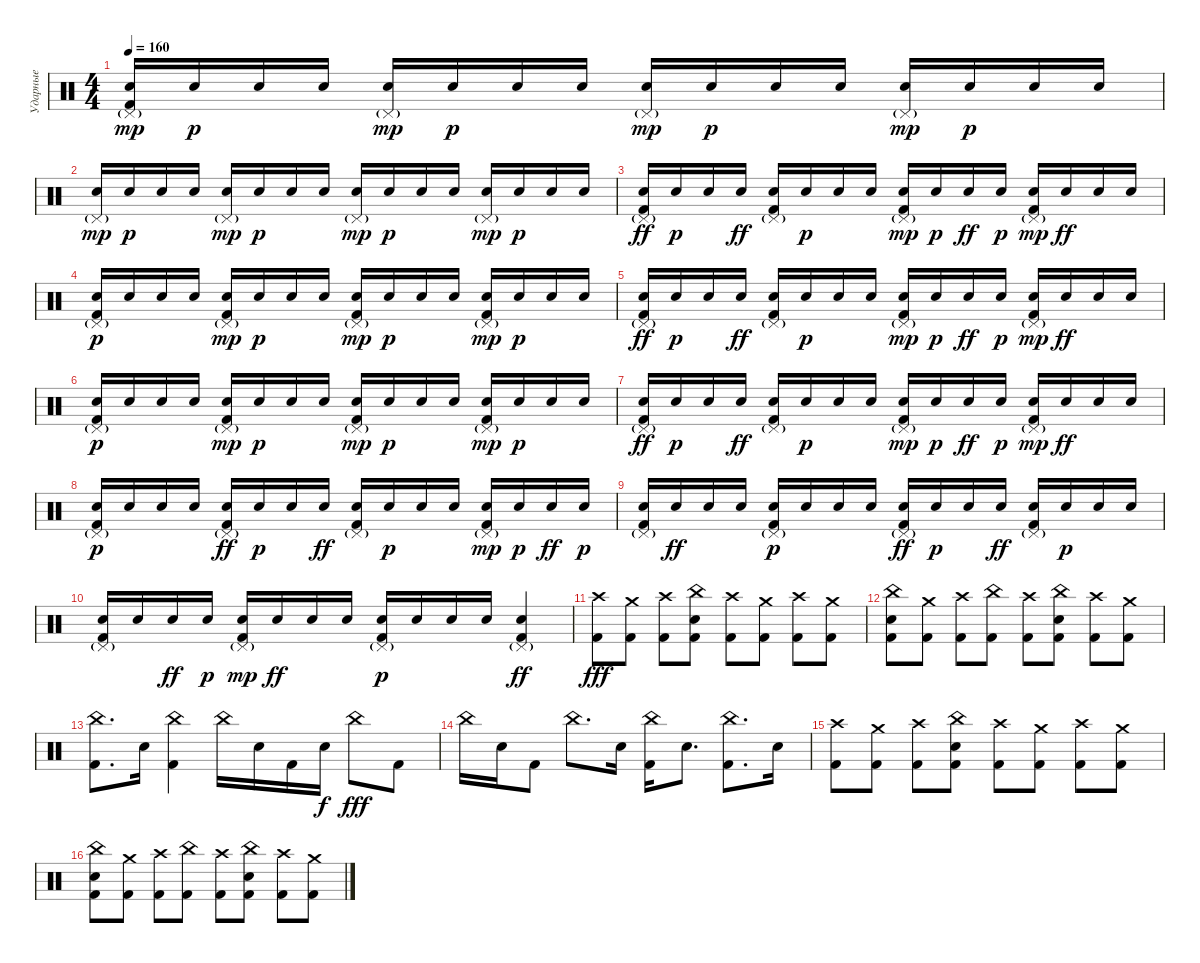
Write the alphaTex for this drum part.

\track ("Ударные" "Ударные") {instrument percussion}
\staff {score}
\articulation defaults
\ts (4 4)
\tempo 160
\clef neutral
\ks c
("Pedal Hi-Hat (hit)"{g} "Electric Snare (hit)" "Kick (hit) 2").16{dy mp} "Electric Snare (hit)".16{dy p} "Electric Snare (hit)".16 "Electric Snare (hit)".16 ("Pedal Hi-Hat (hit)"{g} "Electric Snare (hit)").16{dy mp} "Electric Snare (hit)".16{dy p} "Electric Snare (hit)".16 "Electric Snare (hit)".16 ("Pedal Hi-Hat (hit)"{g} "Electric Snare (hit)").16{dy mp} "Electric Snare (hit)".16{dy p} "Electric Snare (hit)".16 "Electric Snare (hit)".16 ("Pedal Hi-Hat (hit)"{g} "Electric Snare (hit)").16{dy mp} "Electric Snare (hit)".16{dy p} "Electric Snare (hit)".16 "Electric Snare (hit)".16 |
("Pedal Hi-Hat (hit)"{g} "Electric Snare (hit)").16{dy mp} "Electric Snare (hit)".16{dy p} "Electric Snare (hit)".16 "Electric Snare (hit)".16 ("Pedal Hi-Hat (hit)"{g} "Electric Snare (hit)").16{dy mp} "Electric Snare (hit)".16{dy p} "Electric Snare (hit)".16 "Electric Snare (hit)".16 ("Pedal Hi-Hat (hit)"{g} "Electric Snare (hit)").16{dy mp} "Electric Snare (hit)".16{dy p} "Electric Snare (hit)".16 "Electric Snare (hit)".16 ("Pedal Hi-Hat (hit)"{g} "Electric Snare (hit)").16{dy mp} "Electric Snare (hit)".16{dy p} "Electric Snare (hit)".16 "Electric Snare (hit)".16 |
("Pedal Hi-Hat (hit)"{g} "Electric Snare (hit)" "Kick (hit) 2").16{dy ff} "Electric Snare (hit)".16{dy p} "Electric Snare (hit)".16 "Electric Snare (hit)".16{dy ff} ("Pedal Hi-Hat (hit)"{g} "Electric Snare (hit)" "Kick (hit) 2").16 "Electric Snare (hit)".16{dy p} "Electric Snare (hit)".16 "Electric Snare (hit)".16 ("Pedal Hi-Hat (hit)"{g} "Electric Snare (hit)" "Kick (hit) 2").16{dy mp} "Electric Snare (hit)".16{dy p} "Electric Snare (hit)".16{dy ff} "Electric Snare (hit)".16{dy p} ("Pedal Hi-Hat (hit)"{g} "Electric Snare (hit)" "Kick (hit) 2").16{dy mp} "Electric Snare (hit)".16{dy ff} "Electric Snare (hit)".16 "Electric Snare (hit)".16 |
("Pedal Hi-Hat (hit)"{g} "Electric Snare (hit)" "Kick (hit) 2").16{dy p} "Electric Snare (hit)".16 "Electric Snare (hit)".16 "Electric Snare (hit)".16 ("Pedal Hi-Hat (hit)"{g} "Electric Snare (hit)" "Kick (hit) 2").16{dy mp} "Electric Snare (hit)".16{dy p} "Electric Snare (hit)".16 "Electric Snare (hit)".16 ("Pedal Hi-Hat (hit)"{g} "Electric Snare (hit)" "Kick (hit) 2").16{dy mp} "Electric Snare (hit)".16{dy p} "Electric Snare (hit)".16 "Electric Snare (hit)".16 ("Pedal Hi-Hat (hit)"{g} "Electric Snare (hit)" "Kick (hit) 2").16{dy mp} "Electric Snare (hit)".16{dy p} "Electric Snare (hit)".16 "Electric Snare (hit)".16 |
("Pedal Hi-Hat (hit)"{g} "Electric Snare (hit)" "Kick (hit) 2").16{dy ff} "Electric Snare (hit)".16{dy p} "Electric Snare (hit)".16 "Electric Snare (hit)".16{dy ff} ("Pedal Hi-Hat (hit)"{g} "Electric Snare (hit)" "Kick (hit) 2").16 "Electric Snare (hit)".16{dy p} "Electric Snare (hit)".16 "Electric Snare (hit)".16 ("Pedal Hi-Hat (hit)"{g} "Electric Snare (hit)" "Kick (hit) 2").16{dy mp} "Electric Snare (hit)".16{dy p} "Electric Snare (hit)".16{dy ff} "Electric Snare (hit)".16{dy p} ("Pedal Hi-Hat (hit)"{g} "Electric Snare (hit)" "Kick (hit) 2").16{dy mp} "Electric Snare (hit)".16{dy ff} "Electric Snare (hit)".16 "Electric Snare (hit)".16 |
("Pedal Hi-Hat (hit)"{g} "Electric Snare (hit)" "Kick (hit) 2").16{dy p} "Electric Snare (hit)".16 "Electric Snare (hit)".16 "Electric Snare (hit)".16 ("Pedal Hi-Hat (hit)"{g} "Electric Snare (hit)" "Kick (hit) 2").16{dy mp} "Electric Snare (hit)".16{dy p} "Electric Snare (hit)".16 "Electric Snare (hit)".16 ("Pedal Hi-Hat (hit)"{g} "Electric Snare (hit)" "Kick (hit) 2").16{dy mp} "Electric Snare (hit)".16{dy p} "Electric Snare (hit)".16 "Electric Snare (hit)".16 ("Pedal Hi-Hat (hit)"{g} "Electric Snare (hit)" "Kick (hit) 2").16{dy mp} "Electric Snare (hit)".16{dy p} "Electric Snare (hit)".16 "Electric Snare (hit)".16 |
("Pedal Hi-Hat (hit)"{g} "Electric Snare (hit)" "Kick (hit) 2").16{dy ff} "Electric Snare (hit)".16{dy p} "Electric Snare (hit)".16 "Electric Snare (hit)".16{dy ff} ("Pedal Hi-Hat (hit)"{g} "Electric Snare (hit)" "Kick (hit) 2").16 "Electric Snare (hit)".16{dy p} "Electric Snare (hit)".16 "Electric Snare (hit)".16 ("Pedal Hi-Hat (hit)"{g} "Electric Snare (hit)" "Kick (hit) 2").16{dy mp} "Electric Snare (hit)".16{dy p} "Electric Snare (hit)".16{dy ff} "Electric Snare (hit)".16{dy p} ("Pedal Hi-Hat (hit)"{g} "Electric Snare (hit)" "Kick (hit) 2").16{dy mp} "Electric Snare (hit)".16{dy ff} "Electric Snare (hit)".16 "Electric Snare (hit)".16 |
("Pedal Hi-Hat (hit)"{g} "Electric Snare (hit)" "Kick (hit) 2").16{dy p} "Electric Snare (hit)".16 "Electric Snare (hit)".16 "Electric Snare (hit)".16 ("Pedal Hi-Hat (hit)"{g} "Electric Snare (hit)" "Kick (hit) 2").16{dy ff} "Electric Snare (hit)".16{dy p} "Electric Snare (hit)".16 "Electric Snare (hit)".16{dy ff} ("Pedal Hi-Hat (hit)"{g} "Electric Snare (hit)" "Kick (hit) 2").16 "Electric Snare (hit)".16{dy p} "Electric Snare (hit)".16 "Electric Snare (hit)".16 ("Pedal Hi-Hat (hit)"{g} "Electric Snare (hit)" "Kick (hit) 2").16{dy mp} "Electric Snare (hit)".16{dy p} "Electric Snare (hit)".16{dy ff} "Electric Snare (hit)".16{dy p} |
("Pedal Hi-Hat (hit)"{g} "Electric Snare (hit)" "Kick (hit) 2").16 "Electric Snare (hit)".16{dy ff} "Electric Snare (hit)".16 "Electric Snare (hit)".16 ("Pedal Hi-Hat (hit)"{g} "Electric Snare (hit)" "Kick (hit) 2").16{dy p} "Electric Snare (hit)".16 "Electric Snare (hit)".16 "Electric Snare (hit)".16 ("Pedal Hi-Hat (hit)"{g} "Electric Snare (hit)" "Kick (hit) 2").16{dy ff} "Electric Snare (hit)".16{dy p} "Electric Snare (hit)".16 "Electric Snare (hit)".16{dy ff} ("Pedal Hi-Hat (hit)"{g} "Electric Snare (hit)" "Kick (hit) 2").16 "Electric Snare (hit)".16{dy p} "Electric Snare (hit)".16 "Electric Snare (hit)".16 |
("Pedal Hi-Hat (hit)"{g} "Electric Snare (hit)" "Kick (hit) 2").16 "Electric Snare (hit)".16 "Electric Snare (hit)".16{dy ff} "Electric Snare (hit)".16{dy p} ("Pedal Hi-Hat (hit)"{g} "Electric Snare (hit)" "Kick (hit) 2").16{dy mp} "Electric Snare (hit)".16{dy ff} "Electric Snare (hit)".16 "Electric Snare (hit)".16 ("Pedal Hi-Hat (hit)"{g} "Electric Snare (hit)" "Kick (hit) 2").16{dy p} "Electric Snare (hit)".16 "Electric Snare (hit)".16 "Electric Snare (hit)".16 ("Pedal Hi-Hat (hit)"{g} "Electric Snare (hit)" "Kick (hit) 2").4{dy ff} |
("Crash high (hit)" "Kick (hit) 2").8{dy fff} ("Crash medium (hit)" "Kick (hit) 2").8 ("Crash high (hit)" "Kick (hit) 2").8 ("China (hit)" "Electric Snare (hit)" "Kick (hit) 2").8 ("Crash high (hit)" "Kick (hit) 2").8 ("Crash medium (hit)" "Kick (hit) 2").8 ("Crash high (hit)" "Kick (hit) 2").8 ("Crash medium (hit)" "Kick (hit) 2").8 |
("China (hit)" "Electric Snare (hit)" "Kick (hit) 2").8 ("Crash medium (hit)" "Kick (hit) 2").8 ("Crash high (hit)" "Kick (hit) 2").8 ("China (hit)" "Kick (hit) 2").8 ("Crash high (hit)" "Kick (hit) 2").8 ("China (hit)" "Electric Snare (hit)" "Kick (hit) 2").8 ("Crash high (hit)" "Kick (hit) 2").8 ("Crash medium (hit)" "Kick (hit) 2").8 |
("China (hit)" "Kick (hit) 2").8{d} "Electric Snare (hit)".16 ("China (hit)" "Kick (hit) 2").4 "China (hit)".16 "Electric Snare (hit)".16 "Kick (hit) 2".16 "Electric Snare (hit)".16{dy f} "China (hit)".8{dy fff} "Kick (hit) 2".8 |
"China (hit)".16 "Electric Snare (hit)".16 "Kick (hit) 2".8 "China (hit)".8{d} "Electric Snare (hit)".16 ("China (hit)" "Kick (hit) 2").16 "Electric Snare (hit)".8{d} ("China (hit)" "Kick (hit) 2").8{d} "Electric Snare (hit)".16 |
("Crash high (hit)" "Kick (hit) 2").8 ("Crash medium (hit)" "Kick (hit) 2").8 ("Crash high (hit)" "Kick (hit) 2").8 ("China (hit)" "Electric Snare (hit)" "Kick (hit) 2").8 ("Crash high (hit)" "Kick (hit) 2").8 ("Crash medium (hit)" "Kick (hit) 2").8 ("Crash high (hit)" "Kick (hit) 2").8 ("Crash medium (hit)" "Kick (hit) 2").8 |
("China (hit)" "Electric Snare (hit)" "Kick (hit) 2").8 ("Crash medium (hit)" "Kick (hit) 2").8 ("Crash high (hit)" "Kick (hit) 2").8 ("China (hit)" "Kick (hit) 2").8 ("Crash high (hit)" "Kick (hit) 2").8 ("China (hit)" "Electric Snare (hit)" "Kick (hit) 2").8 ("Crash high (hit)" "Kick (hit) 2").8 ("Crash medium (hit)" "Kick (hit) 2").8
